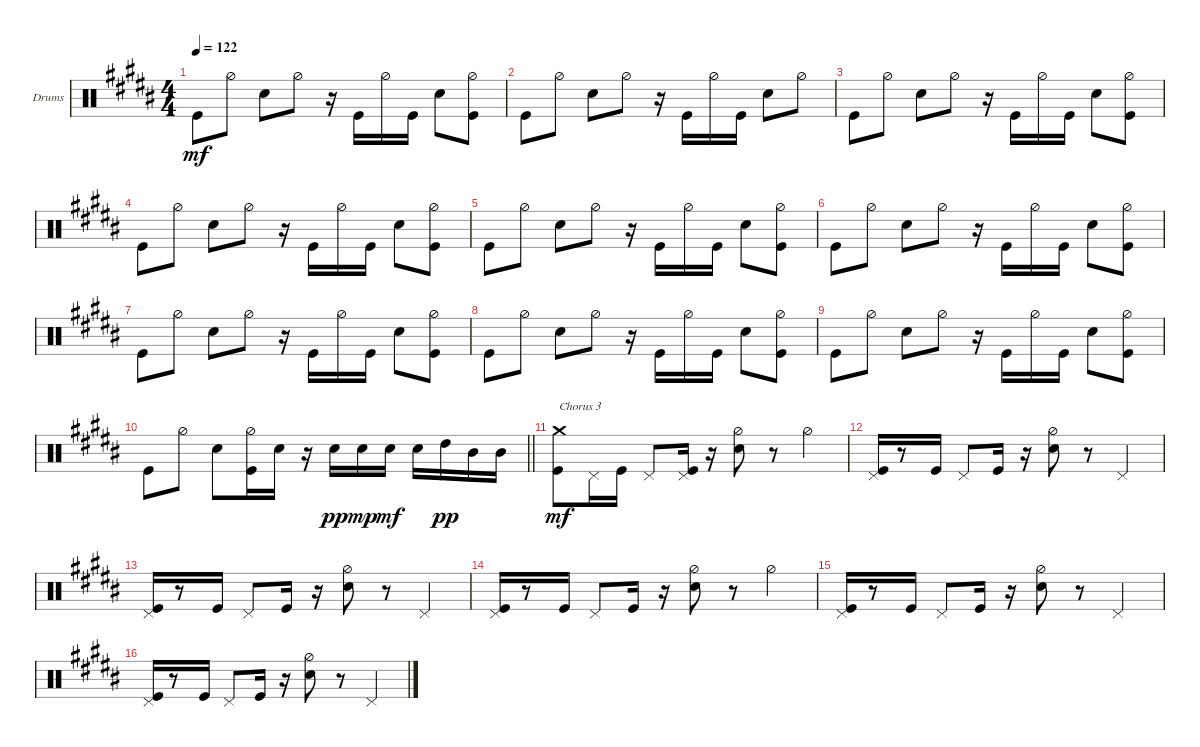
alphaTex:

\defaultSystemsLayout 4
\bracketExtendMode groupsimilarinstruments
\firstSystemTrackNameOrientation horizontal
\otherSystemsTrackNameOrientation horizontal
\track ("Drumkit" "Drums") {multiBarRest instrument percussion}
\staff {score}
\articulation defaults
\ts (4 4)
\tempo 122
\clef neutral
\ks b "Kick (hit)".8{dy mf} "Hi-Hat (half)".8 "Snare (hit) 2".8 "Hi-Hat (half)".8
r.16 "Kick (hit)".16 "Hi-Hat (half)".16 "Kick (hit)".16 "Snare (hit) 2".8 ("Kick (hit)" "Hi-Hat (half)").8 |
"Kick (hit)".8 "Hi-Hat (half)".8 "Snare (hit) 2".8 "Hi-Hat (half)".8 r.16 "Kick (hit)".16 "Hi-Hat (half)".16 "Kick (hit)".16 "Snare (hit) 2".8 "Hi-Hat (half)".8 |
"Kick (hit)".8 "Hi-Hat (half)".8 "Snare (hit) 2".8 "Hi-Hat (half)".8 r.16 "Kick (hit)".16 "Hi-Hat (half)".16 "Kick (hit)".16 "Snare (hit) 2".8 ("Kick (hit)" "Hi-Hat (half)").8 |
"Kick (hit)".8 "Hi-Hat (half)".8 "Snare (hit) 2".8 "Hi-Hat (half)".8 r.16 "Kick (hit)".16 "Hi-Hat (half)".16 "Kick (hit)".16 "Snare (hit) 2".8 ("Kick (hit)" "Hi-Hat (half)").8 |
"Kick (hit)".8 "Hi-Hat (half)".8 "Snare (hit) 2".8 "Hi-Hat (half)".8 r.16 "Kick (hit)".16 "Hi-Hat (half)".16 "Kick (hit)".16 "Snare (hit) 2".8 ("Kick (hit)" "Hi-Hat (half)").8 |
"Kick (hit)".8 "Hi-Hat (half)".8 "Snare (hit) 2".8 "Hi-Hat (half)".8 r.16 "Kick (hit)".16 "Hi-Hat (half)".16 "Kick (hit)".16 "Snare (hit) 2".8 ("Kick (hit)" "Hi-Hat (half)").8 |
"Kick (hit)".8 "Hi-Hat (half)".8 "Snare (hit) 2".8 "Hi-Hat (half)".8 r.16 "Kick (hit)".16 "Hi-Hat (half)".16 "Kick (hit)".16 "Snare (hit) 2".8 ("Kick (hit)" "Hi-Hat (half)").8 |
"Kick (hit)".8 "Hi-Hat (half)".8 "Snare (hit) 2".8 "Hi-Hat (half)".8 r.16 "Kick (hit)".16 "Hi-Hat (half)".16 "Kick (hit)".16 "Snare (hit) 2".8 ("Kick (hit)" "Hi-Hat (half)").8 |
"Kick (hit)".8 "Hi-Hat (half)".8 "Snare (hit) 2".8 "Hi-Hat (half)".8 r.16 "Kick (hit)".16 "Hi-Hat (half)".16 "Kick (hit)".16 "Snare (hit) 2".8 ("Kick (hit)" "Hi-Hat (half)").8 |
\barLineRight lightlight "Kick (hit)".8 "Hi-Hat (half)".8 "Snare (hit) 2".8
("Hi-Hat (half)" "Kick (hit)").16 "Snare (hit) 2".16 r.16 "Snare (hit) 2".16{dy pp} "Snare (hit) 2".16{dy mp} "Snare (hit) 2".16{dy mf} "Snare (hit) 2".16 "High Tom (hit)".16{dy pp} "Mid Tom (hit)".16 "Mid Tom (hit)".16 |
("Kick (hit)" "Crash medium (hit)").8{txt "Chorus 3" dy mf} "Pedal Hi-Hat (hit)".16 "Kick (hit)".16 "Pedal Hi-Hat (hit)".8 ("Kick (hit)" "Pedal Hi-Hat (hit)").16 r.16 ("Snare (hit) 2" "Hi-Hat (half)").8 r.8 "Hi-Hat (half)".4 |
("Kick (hit)" "Pedal Hi-Hat (hit)").16 r.8 "Kick (hit)".16 "Pedal Hi-Hat (hit)".8 "Kick (hit)".16 r.16 ("Snare (hit) 2" "Hi-Hat (half)").8 r.8 "Pedal Hi-Hat (hit)".4 |
("Kick (hit)" "Pedal Hi-Hat (hit)").16 r.8 "Kick (hit)".16 "Pedal Hi-Hat (hit)".8 "Kick (hit)".16 r.16 ("Snare (hit) 2" "Hi-Hat (half)").8 r.8 "Pedal Hi-Hat (hit)".4 |
("Kick (hit)" "Pedal Hi-Hat (hit)").16 r.8 "Kick (hit)".16 "Pedal Hi-Hat (hit)".8 "Kick (hit)".16 r.16 ("Snare (hit) 2" "Hi-Hat (half)").8 r.8 "Hi-Hat (half)".4 |
("Kick (hit)" "Pedal Hi-Hat (hit)").16 r.8 "Kick (hit)".16 "Pedal Hi-Hat (hit)".8 "Kick (hit)".16 r.16 ("Snare (hit) 2" "Hi-Hat (half)").8 r.8 "Pedal Hi-Hat (hit)".4 |
("Kick (hit)" "Pedal Hi-Hat (hit)").16 r.8 "Kick (hit)".16 "Pedal Hi-Hat (hit)".8 "Kick (hit)".16 r.16 ("Snare (hit) 2" "Hi-Hat (half)").8 r.8 "Pedal Hi-Hat (hit)".4
